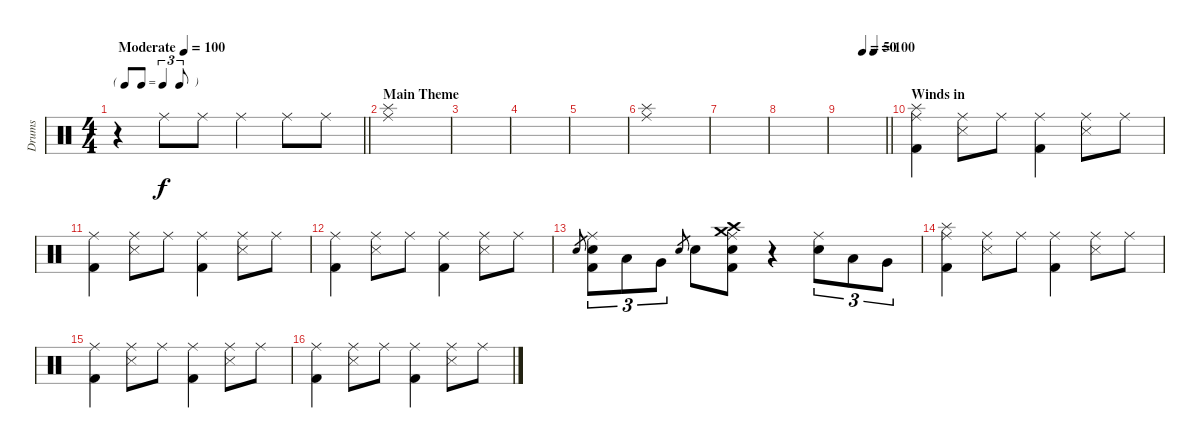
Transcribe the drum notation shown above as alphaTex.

\track ("Drums" "Drums") {instrument percussion}
\staff {score}
\articulation defaults
\ts (4 4)
\tf triplet8th
\tempo (100 "Moderate")
\clef neutral
\barLineRight lightlight
\ks c
r.4{dy f} "Ride (middle)".8 "Ride (middle)".8 "Ride (middle)".4 "Ride (middle)".8 "Ride (middle)".8 |
\section ("" "Main Theme")
("Splash (hit)" "Ride (middle)").1 |
|
|
|
("Splash (hit)" "Ride (middle)").1 |
|
|
\tempo (50 0.5)
\tempo (100 0.75)
\barLineRight lightlight
|
\section ("" "Winds in")
("Ride (middle)" "Splash (hit)" "Kick (hit) 2").4 ("Ride (middle)" "Snare (side stick) 3").8 "Ride (middle)".8 ("Ride (middle)" "Kick (hit) 2").4 ("Ride (middle)" "Snare (side stick) 3").8 "Ride (middle)".8 |
("Ride (middle)" "Kick (hit) 2").4 ("Ride (middle)" "Snare (side stick) 3").8 "Ride (middle)".8 ("Ride (middle)" "Kick (hit) 2").4 ("Ride (middle)" "Snare (side stick) 3").8 "Ride (middle)".8 |
("Ride (middle)" "Kick (hit) 2").4 ("Ride (middle)" "Snare (side stick) 3").8 "Ride (middle)".8 ("Ride (middle)" "Kick (hit) 2").4 ("Ride (middle)" "Snare (side stick) 3").8 "Ride (middle)".8 |
"Electric Snare (hit)".8{gr} ("Ride (middle)" "Electric Snare (hit)" "Kick (hit) 2").8{tu (3 2)} "Low Tom (hit)".8{tu (3 2)} "Very Low Tom (hit)".8{tu (3 2)} "Electric Snare (hit)".8{gr} "Electric Snare (hit)".8 ("Ride (middle)" "Crash high (hit)" "Crash medium (hit)" "Electric Snare (hit)" "Kick (hit) 2").8 r.4 ("Ride (middle)" "Electric Snare (hit)").8{tu (3 2)} "Low Tom (hit)".8{tu (3 2)} "Very Low Tom (hit)".8{tu (3 2)} |
("Ride (middle)" "Splash (hit)" "Kick (hit) 2").4 ("Ride (middle)" "Snare (side stick) 3").8 "Ride (middle)".8 ("Ride (middle)" "Kick (hit) 2").4 ("Ride (middle)" "Snare (side stick) 3").8 "Ride (middle)".8 |
("Ride (middle)" "Kick (hit) 2").4 ("Ride (middle)" "Snare (side stick) 3").8 "Ride (middle)".8 ("Ride (middle)" "Kick (hit) 2").4 ("Ride (middle)" "Snare (side stick) 3").8 "Ride (middle)".8 |
("Ride (middle)" "Kick (hit) 2").4 ("Ride (middle)" "Snare (side stick) 3").8 "Ride (middle)".8 ("Ride (middle)" "Kick (hit) 2").4 ("Ride (middle)" "Snare (side stick) 3").8 "Ride (middle)".8
